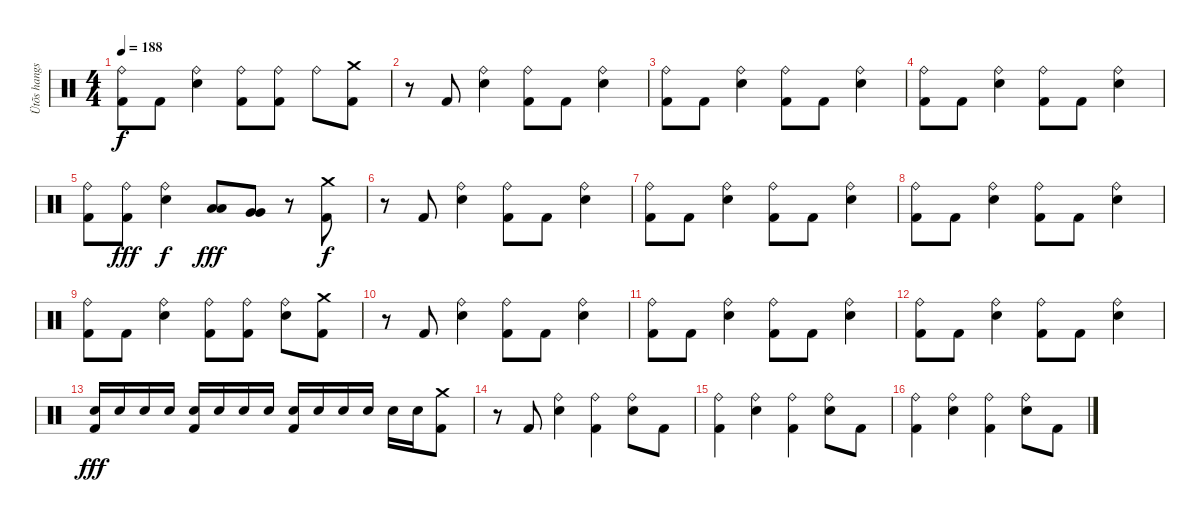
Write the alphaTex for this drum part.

\track ("Ütõs hangszer" "Ütõs hangs") {instrument percussion}
\staff {score}
\articulation defaults
\ts (4 4)
\tempo 188
\clef neutral
\ks c
("Ride (bell)" "Kick (hit) 2").8{dy f} "Kick (hit) 2".8 ("Ride (bell)" "Electric Snare (hit)").4 ("Ride (bell)" "Kick (hit) 2").8 ("Ride (bell)" "Kick (hit) 2").8 "Ride (bell)".8 ("Crash medium (hit)" "Kick (hit) 2").8 |
r.8 "Kick (hit) 2".8 ("Ride (bell)" "Electric Snare (hit)").4 ("Ride (bell)" "Kick (hit) 2").8 "Kick (hit) 2".8 ("Ride (bell)" "Electric Snare (hit)").4 |
("Ride (bell)" "Kick (hit) 2").8 "Kick (hit) 2".8 ("Ride (bell)" "Electric Snare (hit)").4 ("Ride (bell)" "Kick (hit) 2").8 "Kick (hit) 2".8 ("Ride (bell)" "Electric Snare (hit)").4 |
("Ride (bell)" "Kick (hit) 2").8 "Kick (hit) 2".8 ("Ride (bell)" "Electric Snare (hit)").4 ("Ride (bell)" "Kick (hit) 2").8 "Kick (hit) 2".8 ("Ride (bell)" "Electric Snare (hit)").4 |
("Ride (bell)" "Kick (hit) 2").8 ("Ride (bell)" "Kick (hit) 2").8{dy fff} ("Ride (bell)" "Electric Snare (hit)").4{dy f} ("Low Tom (hit)" "Low Tom (hit)").8{dy fff} ("Very Low Tom (hit)" "Very Low Tom (hit)").8 r.8 ("Crash medium (hit)" "Kick (hit) 2").8{dy f} |
r.8 "Kick (hit) 2".8 ("Ride (bell)" "Electric Snare (hit)").4 ("Ride (bell)" "Kick (hit) 2").8 "Kick (hit) 2".8 ("Ride (bell)" "Electric Snare (hit)").4 |
("Ride (bell)" "Kick (hit) 2").8 "Kick (hit) 2".8 ("Ride (bell)" "Electric Snare (hit)").4 ("Ride (bell)" "Kick (hit) 2").8 "Kick (hit) 2".8 ("Ride (bell)" "Electric Snare (hit)").4 |
("Ride (bell)" "Kick (hit) 2").8 "Kick (hit) 2".8 ("Ride (bell)" "Electric Snare (hit)").4 ("Ride (bell)" "Kick (hit) 2").8 "Kick (hit) 2".8 ("Ride (bell)" "Electric Snare (hit)").4 |
("Ride (bell)" "Kick (hit) 2").8 "Kick (hit) 2".8 ("Ride (bell)" "Electric Snare (hit)").4 ("Ride (bell)" "Kick (hit) 2").8 ("Ride (bell)" "Kick (hit) 2").8 ("Ride (bell)" "Electric Snare (hit)").8 ("Crash medium (hit)" "Kick (hit) 2").8 |
r.8 "Kick (hit) 2".8 ("Ride (bell)" "Electric Snare (hit)").4 ("Ride (bell)" "Kick (hit) 2").8 "Kick (hit) 2".8 ("Ride (bell)" "Electric Snare (hit)").4 |
("Ride (bell)" "Kick (hit) 2").8 "Kick (hit) 2".8 ("Ride (bell)" "Electric Snare (hit)").4 ("Ride (bell)" "Kick (hit) 2").8 "Kick (hit) 2".8 ("Ride (bell)" "Electric Snare (hit)").4 |
("Ride (bell)" "Kick (hit) 2").8 "Kick (hit) 2".8 ("Ride (bell)" "Electric Snare (hit)").4 ("Ride (bell)" "Kick (hit) 2").8 "Kick (hit) 2".8 ("Ride (bell)" "Electric Snare (hit)").4 |
("Electric Snare (hit)" "Kick (hit) 2").16{dy fff} "Electric Snare (hit)".16 "Electric Snare (hit)".16 "Electric Snare (hit)".16 ("Electric Snare (hit)" "Kick (hit) 2").16 "Electric Snare (hit)".16 "Electric Snare (hit)".16 "Electric Snare (hit)".16 ("Electric Snare (hit)" "Kick (hit) 2").16 "Electric Snare (hit)".16 "Electric Snare (hit)".16 "Electric Snare (hit)".16 "Electric Snare (hit)".16 "Electric Snare (hit)".16 ("Crash medium (hit)" "Kick (hit) 2").8 |
r.8 "Kick (hit) 2".8 ("Ride (bell)" "Electric Snare (hit)").4 ("Ride (bell)" "Kick (hit) 2").4 ("Ride (bell)" "Electric Snare (hit)").8 "Kick (hit) 2".8 |
("Ride (bell)" "Kick (hit) 2").4 ("Ride (bell)" "Electric Snare (hit)").4 ("Ride (bell)" "Kick (hit) 2").4 ("Ride (bell)" "Electric Snare (hit)").8 "Kick (hit) 2".8 |
("Ride (bell)" "Kick (hit) 2").4 ("Ride (bell)" "Electric Snare (hit)").4 ("Ride (bell)" "Kick (hit) 2").4 ("Ride (bell)" "Electric Snare (hit)").8 "Kick (hit) 2".8
